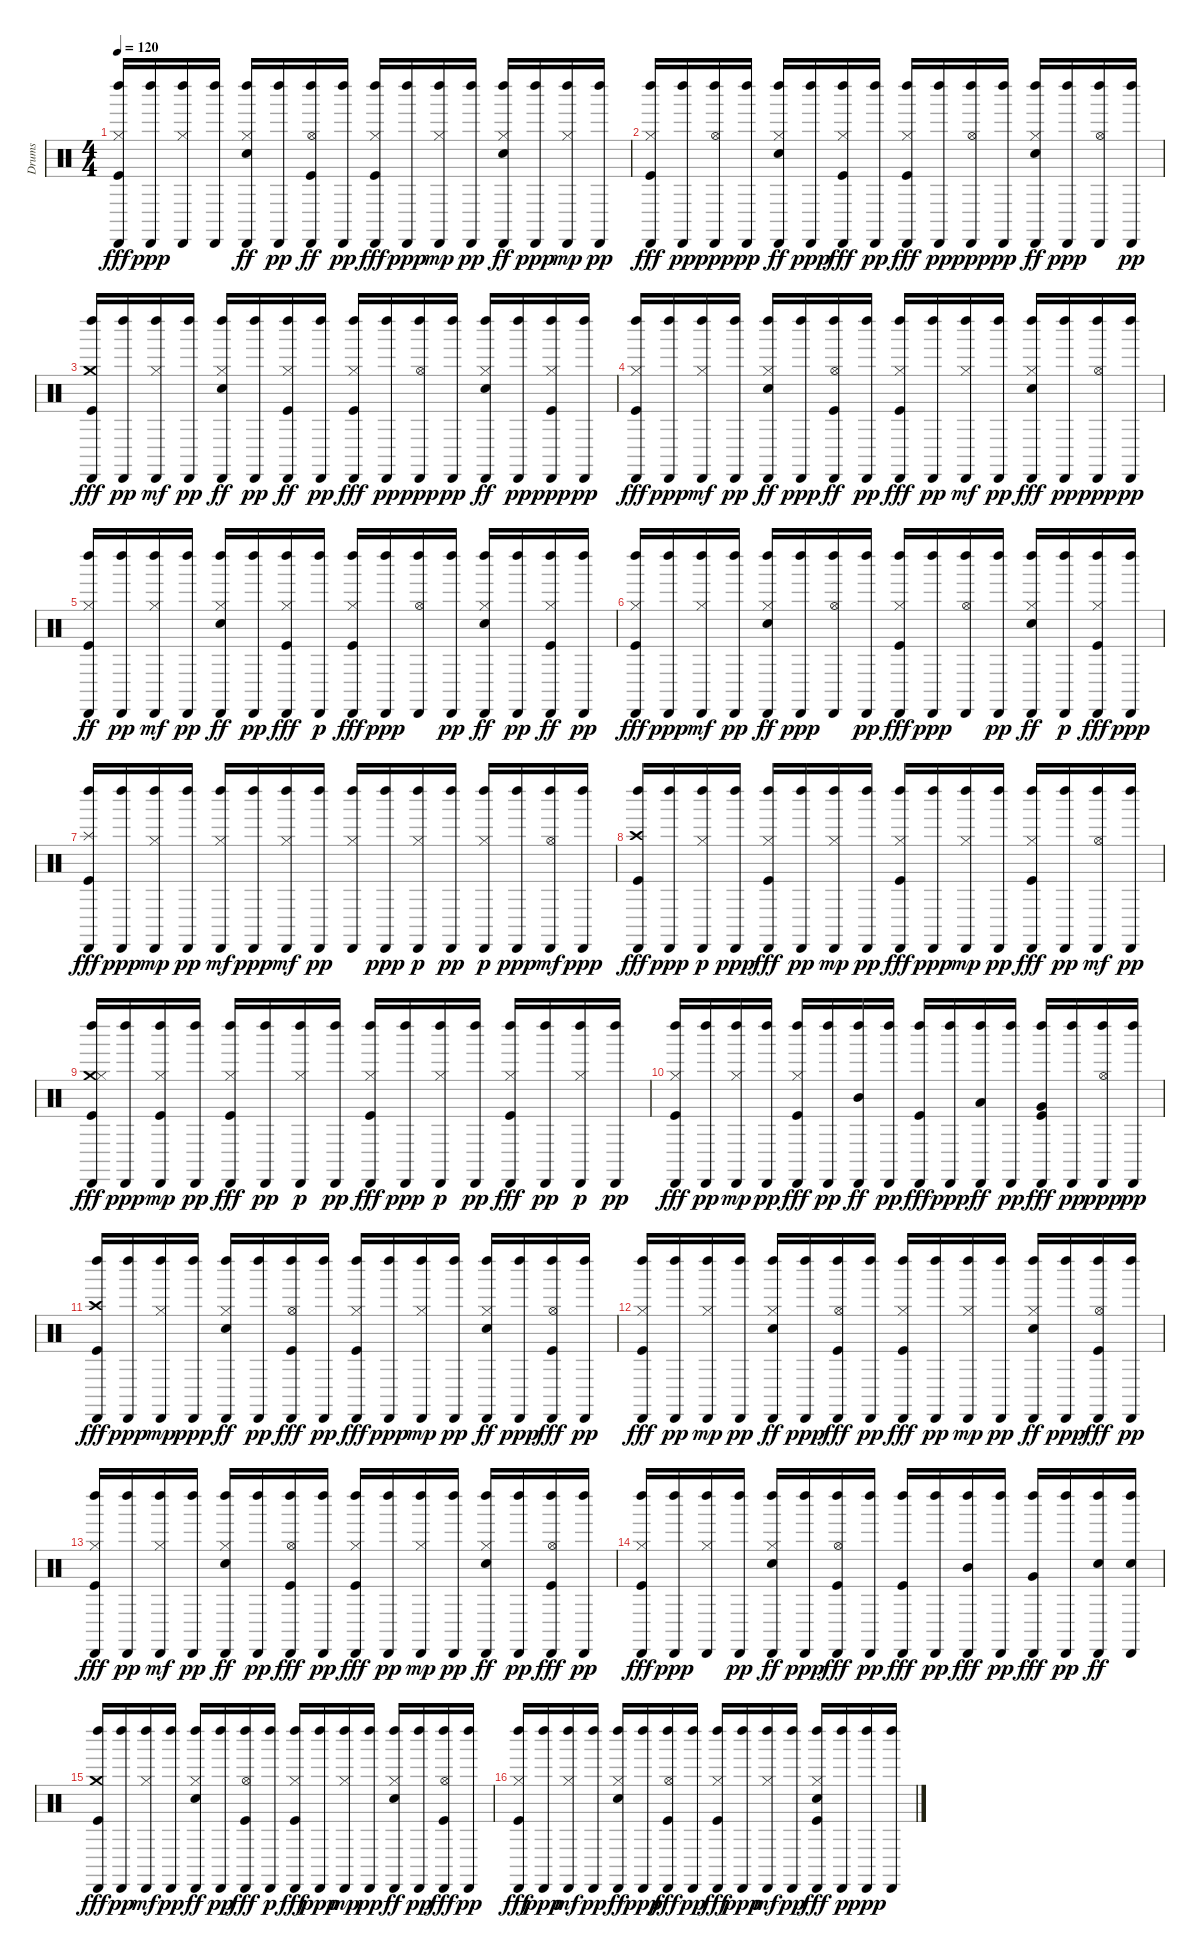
\track ("Drums" "Drums") {instrument percussion}
\staff {score}
\articulation defaults
\ts (4 4)
\tempo 120
\clef neutral
\ks c
("Left Maraca (hit)" "Cabasa (hit)" "Hi-Hat (closed)" "Kick (hit)").16{dy fff} ("Left Maraca (hit)" "Cabasa (hit)").16{dy ppp} ("Left Maraca (hit)" "Cabasa (hit)" "Hi-Hat (closed)").16 ("Left Maraca (hit)" "Cabasa (hit)").16 ("Left Maraca (hit)" "Cabasa (hit)" "Hi-Hat (closed)" "Electric Snare (hit)").16{dy ff} ("Left Maraca (hit)" "Cabasa (hit)").16{dy pp} ("Left Maraca (hit)" "Cabasa (hit)" "Hi-Hat (open)" "Kick (hit)").16{dy ff} ("Left Maraca (hit)" "Cabasa (hit)").16{dy pp} ("Left Maraca (hit)" "Cabasa (hit)" "Hi-Hat (closed)" "Kick (hit)").16{dy fff} ("Left Maraca (hit)" "Cabasa (hit)").16{dy ppp} ("Left Maraca (hit)" "Cabasa (hit)" "Hi-Hat (closed)").16{dy mp} ("Left Maraca (hit)" "Cabasa (hit)").16{dy pp} ("Left Maraca (hit)" "Cabasa (hit)" "Hi-Hat (closed)" "Electric Snare (hit)").16{dy ff} ("Left Maraca (hit)" "Cabasa (hit)").16{dy ppp} ("Left Maraca (hit)" "Cabasa (hit)" "Hi-Hat (closed)").16{dy mp} ("Left Maraca (hit)" "Cabasa (hit)").16{dy pp} |
("Left Maraca (hit)" "Cabasa (hit)" "Hi-Hat (closed)" "Kick (hit)").16{dy fff} ("Left Maraca (hit)" "Cabasa (hit)").16{dy pp} ("Left Maraca (hit)" "Cabasa (hit)" "Hi-Hat (open)").16{dy ppp} ("Left Maraca (hit)" "Cabasa (hit)").16{dy pp} ("Left Maraca (hit)" "Cabasa (hit)" "Hi-Hat (closed)" "Electric Snare (hit)").16{dy ff} ("Left Maraca (hit)" "Cabasa (hit)").16{dy ppp} ("Left Maraca (hit)" "Cabasa (hit)" "Hi-Hat (closed)" "Kick (hit)").16{dy fff} ("Left Maraca (hit)" "Cabasa (hit)").16{dy pp} ("Left Maraca (hit)" "Cabasa (hit)" "Hi-Hat (closed)" "Kick (hit)").16{dy fff} ("Left Maraca (hit)" "Cabasa (hit)").16{dy pp} ("Left Maraca (hit)" "Cabasa (hit)" "Hi-Hat (open)").16{dy ppp} ("Left Maraca (hit)" "Cabasa (hit)").16{dy pp} ("Left Maraca (hit)" "Cabasa (hit)" "Hi-Hat (closed)" "Electric Snare (hit)").16{dy ff} ("Left Maraca (hit)" "Cabasa (hit)").16{dy ppp} ("Left Maraca (hit)" "Cabasa (hit)" "Hi-Hat (open)").16 ("Left Maraca (hit)" "Cabasa (hit)").16{dy pp} |
("Left Maraca (hit)" "Cabasa (hit)" "Crash medium (hit)" "Kick (hit)").16{dy fff} ("Left Maraca (hit)" "Cabasa (hit)").16{dy pp} ("Left Maraca (hit)" "Cabasa (hit)" "Hi-Hat (closed)").16{dy mf} ("Left Maraca (hit)" "Cabasa (hit)").16{dy pp} ("Left Maraca (hit)" "Cabasa (hit)" "Hi-Hat (closed)" "Electric Snare (hit)").16{dy ff} ("Left Maraca (hit)" "Cabasa (hit)").16{dy pp} ("Left Maraca (hit)" "Cabasa (hit)" "Hi-Hat (closed)" "Kick (hit)").16{dy ff} ("Left Maraca (hit)" "Cabasa (hit)").16{dy pp} ("Left Maraca (hit)" "Cabasa (hit)" "Hi-Hat (closed)" "Kick (hit)").16{dy fff} ("Left Maraca (hit)" "Cabasa (hit)").16{dy pp} ("Left Maraca (hit)" "Cabasa (hit)" "Hi-Hat (open)").16{dy ppp} ("Left Maraca (hit)" "Cabasa (hit)").16{dy pp} ("Left Maraca (hit)" "Cabasa (hit)" "Hi-Hat (closed)" "Electric Snare (hit)").16{dy ff} ("Left Maraca (hit)" "Cabasa (hit)").16{dy pp} ("Left Maraca (hit)" "Cabasa (hit)" "Hi-Hat (closed)" "Kick (hit)").16{dy ppp} ("Left Maraca (hit)" "Cabasa (hit)").16{dy pp} |
("Left Maraca (hit)" "Cabasa (hit)" "Hi-Hat (closed)" "Kick (hit)").16{dy fff} ("Left Maraca (hit)" "Cabasa (hit)").16{dy ppp} ("Left Maraca (hit)" "Cabasa (hit)" "Hi-Hat (closed)").16{dy mf} ("Left Maraca (hit)" "Cabasa (hit)").16{dy pp} ("Left Maraca (hit)" "Cabasa (hit)" "Hi-Hat (closed)" "Electric Snare (hit)").16{dy ff} ("Left Maraca (hit)" "Cabasa (hit)").16{dy ppp} ("Left Maraca (hit)" "Cabasa (hit)" "Hi-Hat (open)" "Kick (hit)").16{dy ff} ("Left Maraca (hit)" "Cabasa (hit)").16{dy pp} ("Left Maraca (hit)" "Cabasa (hit)" "Hi-Hat (closed)" "Kick (hit)").16{dy fff} ("Left Maraca (hit)" "Cabasa (hit)").16{dy pp} ("Left Maraca (hit)" "Cabasa (hit)" "Hi-Hat (closed)").16{dy mf} ("Left Maraca (hit)" "Cabasa (hit)").16{dy pp} ("Left Maraca (hit)" "Cabasa (hit)" "Electric Snare (hit)" "Hi-Hat (closed)").16{dy fff} ("Left Maraca (hit)" "Cabasa (hit)").16{dy pp} ("Left Maraca (hit)" "Cabasa (hit)" "Hi-Hat (open)").16{dy ppp} ("Left Maraca (hit)" "Cabasa (hit)").16{dy pp} |
("Left Maraca (hit)" "Cabasa (hit)" "Hi-Hat (closed)" "Kick (hit)").16{dy ff} ("Left Maraca (hit)" "Cabasa (hit)").16{dy pp} ("Left Maraca (hit)" "Cabasa (hit)" "Hi-Hat (closed)").16{dy mf} ("Left Maraca (hit)" "Cabasa (hit)").16{dy pp} ("Left Maraca (hit)" "Cabasa (hit)" "Hi-Hat (closed)" "Electric Snare (hit)").16{dy ff} ("Left Maraca (hit)" "Cabasa (hit)").16{dy pp} ("Left Maraca (hit)" "Cabasa (hit)" "Hi-Hat (closed)" "Kick (hit)").16{dy fff} ("Left Maraca (hit)" "Cabasa (hit)").16{dy p} ("Left Maraca (hit)" "Cabasa (hit)" "Hi-Hat (closed)" "Kick (hit)").16{dy fff} ("Left Maraca (hit)" "Cabasa (hit)").16{dy ppp} ("Left Maraca (hit)" "Cabasa (hit)" "Hi-Hat (open)").16 ("Left Maraca (hit)" "Cabasa (hit)").16{dy pp} ("Left Maraca (hit)" "Cabasa (hit)" "Hi-Hat (closed)" "Electric Snare (hit)").16{dy ff} ("Left Maraca (hit)" "Cabasa (hit)").16{dy pp} ("Left Maraca (hit)" "Cabasa (hit)" "Hi-Hat (closed)" "Kick (hit)").16{dy ff} ("Left Maraca (hit)" "Cabasa (hit)").16{dy pp} |
("Left Maraca (hit)" "Cabasa (hit)" "Hi-Hat (closed)" "Kick (hit)").16{dy fff} ("Left Maraca (hit)" "Cabasa (hit)").16{dy ppp} ("Left Maraca (hit)" "Cabasa (hit)" "Hi-Hat (closed)").16{dy mf} ("Left Maraca (hit)" "Cabasa (hit)").16{dy pp} ("Left Maraca (hit)" "Cabasa (hit)" "Hi-Hat (closed)" "Electric Snare (hit)").16{dy ff} ("Left Maraca (hit)" "Cabasa (hit)").16{dy ppp} ("Left Maraca (hit)" "Cabasa (hit)" "Hi-Hat (open)").16 ("Left Maraca (hit)" "Cabasa (hit)").16{dy pp} ("Left Maraca (hit)" "Cabasa (hit)" "Hi-Hat (closed)" "Kick (hit)").16{dy fff} ("Left Maraca (hit)" "Cabasa (hit)").16{dy ppp} ("Left Maraca (hit)" "Cabasa (hit)" "Hi-Hat (open)").16 ("Left Maraca (hit)" "Cabasa (hit)").16{dy pp} ("Left Maraca (hit)" "Cabasa (hit)" "Electric Snare (hit)" "Hi-Hat (closed)").16{dy ff} ("Left Maraca (hit)" "Cabasa (hit)").16{dy p} ("Left Maraca (hit)" "Cabasa (hit)" "Hi-Hat (closed)" "Kick (hit)").16{dy fff} ("Left Maraca (hit)" "Cabasa (hit)").16{dy ppp} |
("Left Maraca (hit)" "Cabasa (hit)" "Splash (hit)" "Kick (hit)").16{dy fff} ("Left Maraca (hit)" "Cabasa (hit)").16{dy ppp} ("Left Maraca (hit)" "Cabasa (hit)" "Hi-Hat (closed)").16{dy mp} ("Left Maraca (hit)" "Cabasa (hit)").16{dy pp} ("Left Maraca (hit)" "Cabasa (hit)" "Hi-Hat (closed)").16{dy mf} ("Left Maraca (hit)" "Cabasa (hit)").16{dy ppp} ("Left Maraca (hit)" "Cabasa (hit)" "Hi-Hat (closed)").16{dy mf} ("Left Maraca (hit)" "Cabasa (hit)").16{dy pp} ("Left Maraca (hit)" "Cabasa (hit)" "Hi-Hat (closed)").16 ("Left Maraca (hit)" "Cabasa (hit)").16{dy ppp} ("Left Maraca (hit)" "Cabasa (hit)" "Hi-Hat (closed)").16{dy p} ("Left Maraca (hit)" "Cabasa (hit)").16{dy pp} ("Left Maraca (hit)" "Cabasa (hit)" "Hi-Hat (closed)").16{dy p} ("Left Maraca (hit)" "Cabasa (hit)").16{dy ppp} ("Left Maraca (hit)" "Cabasa (hit)" "Hi-Hat (open)").16{dy mf} ("Left Maraca (hit)" "Cabasa (hit)").16{dy ppp} |
("Left Maraca (hit)" "Cabasa (hit)" "Crash high (hit)" "Kick (hit)").16{dy fff} ("Left Maraca (hit)" "Cabasa (hit)").16{dy ppp} ("Left Maraca (hit)" "Cabasa (hit)" "Hi-Hat (closed)").16{dy p} ("Left Maraca (hit)" "Cabasa (hit)").16{dy ppp} ("Left Maraca (hit)" "Cabasa (hit)" "Hi-Hat (closed)" "Kick (hit)").16{dy fff} ("Left Maraca (hit)" "Cabasa (hit)").16{dy pp} ("Left Maraca (hit)" "Cabasa (hit)" "Hi-Hat (closed)").16{dy mp} ("Left Maraca (hit)" "Cabasa (hit)").16{dy pp} ("Left Maraca (hit)" "Cabasa (hit)" "Hi-Hat (closed)" "Kick (hit)").16{dy fff} ("Left Maraca (hit)" "Cabasa (hit)").16{dy ppp} ("Left Maraca (hit)" "Cabasa (hit)" "Hi-Hat (closed)").16{dy mp} ("Left Maraca (hit)" "Cabasa (hit)").16{dy pp} ("Left Maraca (hit)" "Cabasa (hit)" "Hi-Hat (closed)" "Kick (hit)").16{dy fff} ("Left Maraca (hit)" "Cabasa (hit)").16{dy pp} ("Left Maraca (hit)" "Cabasa (hit)" "Hi-Hat (open)").16{dy mf} ("Left Maraca (hit)" "Cabasa (hit)").16{dy pp} |
("Left Maraca (hit)" "Cabasa (hit)" "Crash medium (hit)" "Hi-Hat (closed)" "Kick (hit)").16{dy fff} ("Left Maraca (hit)" "Cabasa (hit)").16{dy ppp} ("Left Maraca (hit)" "Cabasa (hit)" "Hi-Hat (closed)" "Kick (hit)").16{dy mp} ("Left Maraca (hit)" "Cabasa (hit)").16{dy pp} ("Left Maraca (hit)" "Cabasa (hit)" "Hi-Hat (closed)" "Kick (hit)").16{dy fff} ("Left Maraca (hit)" "Cabasa (hit)").16{dy pp} ("Left Maraca (hit)" "Cabasa (hit)" "Hi-Hat (closed)").16{dy p} ("Left Maraca (hit)" "Cabasa (hit)").16{dy pp} ("Left Maraca (hit)" "Cabasa (hit)" "Hi-Hat (closed)" "Kick (hit)").16{dy fff} ("Left Maraca (hit)" "Cabasa (hit)").16{dy ppp} ("Left Maraca (hit)" "Cabasa (hit)" "Hi-Hat (closed)").16{dy p} ("Left Maraca (hit)" "Cabasa (hit)").16{dy pp} ("Left Maraca (hit)" "Cabasa (hit)" "Hi-Hat (closed)" "Kick (hit)").16{dy fff} ("Left Maraca (hit)" "Cabasa (hit)").16{dy pp} ("Left Maraca (hit)" "Cabasa (hit)" "Hi-Hat (closed)").16{dy p} ("Left Maraca (hit)" "Cabasa (hit)").16{dy pp} |
("Left Maraca (hit)" "Cabasa (hit)" "Hi-Hat (closed)" "Kick (hit)").16{dy fff} ("Left Maraca (hit)" "Cabasa (hit)").16{dy pp} ("Left Maraca (hit)" "Cabasa (hit)" "Hi-Hat (closed)").16{dy mp} ("Left Maraca (hit)" "Cabasa (hit)").16{dy pp} ("Left Maraca (hit)" "Cabasa (hit)" "Hi-Hat (closed)" "Kick (hit)").16{dy fff} ("Left Maraca (hit)" "Cabasa (hit)").16{dy pp} ("Left Maraca (hit)" "Cabasa (hit)" "Mid Tom (hit)").16{dy ff} ("Left Maraca (hit)" "Cabasa (hit)").16{dy pp} ("Left Maraca (hit)" "Cabasa (hit)" "Kick (hit)").16{dy fff} ("Left Maraca (hit)" "Cabasa (hit)").16{dy ppp} ("Left Maraca (hit)" "Cabasa (hit)" "Low Tom (hit)").16{dy ff} ("Left Maraca (hit)" "Cabasa (hit)").16{dy pp} ("Left Maraca (hit)" "Cabasa (hit)" "Very Low Tom (hit)" "Kick (hit)").16{dy fff} ("Left Maraca (hit)" "Cabasa (hit)").16{dy pp} ("Left Maraca (hit)" "Cabasa (hit)" "Hi-Hat (open)").16{dy ppp} ("Left Maraca (hit)" "Cabasa (hit)").16{dy pp} |
("Left Maraca (hit)" "Cabasa (hit)" "Crash high (hit)" "Kick (hit)").16{dy fff} ("Left Maraca (hit)" "Cabasa (hit)").16{dy ppp} ("Left Maraca (hit)" "Cabasa (hit)" "Hi-Hat (closed)").16{dy mp} ("Left Maraca (hit)" "Cabasa (hit)").16{dy ppp} ("Left Maraca (hit)" "Cabasa (hit)" "Hi-Hat (closed)" "Electric Snare (hit)").16{dy ff} ("Left Maraca (hit)" "Cabasa (hit)").16{dy pp} ("Left Maraca (hit)" "Cabasa (hit)" "Hi-Hat (open)" "Kick (hit)").16{dy fff} ("Left Maraca (hit)" "Cabasa (hit)").16{dy pp} ("Left Maraca (hit)" "Cabasa (hit)" "Hi-Hat (closed)" "Kick (hit)").16{dy fff} ("Left Maraca (hit)" "Cabasa (hit)").16{dy ppp} ("Left Maraca (hit)" "Cabasa (hit)" "Hi-Hat (closed)").16{dy mp} ("Left Maraca (hit)" "Cabasa (hit)").16{dy pp} ("Left Maraca (hit)" "Cabasa (hit)" "Hi-Hat (closed)" "Electric Snare (hit)").16{dy ff} ("Left Maraca (hit)" "Cabasa (hit)").16{dy ppp} ("Left Maraca (hit)" "Cabasa (hit)" "Hi-Hat (open)" "Kick (hit)").16{dy fff} ("Left Maraca (hit)" "Cabasa (hit)").16{dy pp} |
("Left Maraca (hit)" "Cabasa (hit)" "Hi-Hat (closed)" "Kick (hit)").16{dy fff} ("Left Maraca (hit)" "Cabasa (hit)").16{dy pp} ("Left Maraca (hit)" "Cabasa (hit)" "Hi-Hat (closed)").16{dy mp} ("Left Maraca (hit)" "Cabasa (hit)").16{dy pp} ("Left Maraca (hit)" "Cabasa (hit)" "Hi-Hat (closed)" "Electric Snare (hit)").16{dy ff} ("Left Maraca (hit)" "Cabasa (hit)").16{dy ppp} ("Left Maraca (hit)" "Cabasa (hit)" "Hi-Hat (open)" "Kick (hit)").16{dy fff} ("Left Maraca (hit)" "Cabasa (hit)").16{dy pp} ("Left Maraca (hit)" "Cabasa (hit)" "Hi-Hat (closed)" "Kick (hit)").16{dy fff} ("Left Maraca (hit)" "Cabasa (hit)").16{dy pp} ("Left Maraca (hit)" "Cabasa (hit)" "Hi-Hat (closed)").16{dy mp} ("Left Maraca (hit)" "Cabasa (hit)").16{dy pp} ("Left Maraca (hit)" "Cabasa (hit)" "Hi-Hat (closed)" "Electric Snare (hit)").16{dy ff} ("Left Maraca (hit)" "Cabasa (hit)").16{dy ppp} ("Left Maraca (hit)" "Cabasa (hit)" "Hi-Hat (open)" "Kick (hit)").16{dy fff} ("Left Maraca (hit)" "Cabasa (hit)").16{dy pp} |
("Left Maraca (hit)" "Cabasa (hit)" "Hi-Hat (closed)" "Kick (hit)").16{dy fff} ("Left Maraca (hit)" "Cabasa (hit)").16{dy pp} ("Left Maraca (hit)" "Cabasa (hit)" "Hi-Hat (closed)").16{dy mf} ("Left Maraca (hit)" "Cabasa (hit)").16{dy pp} ("Left Maraca (hit)" "Cabasa (hit)" "Hi-Hat (closed)" "Electric Snare (hit)").16{dy ff} ("Left Maraca (hit)" "Cabasa (hit)").16{dy pp} ("Left Maraca (hit)" "Cabasa (hit)" "Hi-Hat (open)" "Kick (hit)").16{dy fff} ("Left Maraca (hit)" "Cabasa (hit)").16{dy pp} ("Left Maraca (hit)" "Cabasa (hit)" "Hi-Hat (closed)" "Kick (hit)").16{dy fff} ("Left Maraca (hit)" "Cabasa (hit)").16{dy pp} ("Left Maraca (hit)" "Cabasa (hit)" "Hi-Hat (closed)").16{dy mp} ("Left Maraca (hit)" "Cabasa (hit)").16{dy pp} ("Left Maraca (hit)" "Cabasa (hit)" "Hi-Hat (closed)" "Electric Snare (hit)").16{dy ff} ("Left Maraca (hit)" "Cabasa (hit)").16{dy pp} ("Left Maraca (hit)" "Cabasa (hit)" "Hi-Hat (open)" "Kick (hit)").16{dy fff} ("Left Maraca (hit)" "Cabasa (hit)").16{dy pp} |
("Left Maraca (hit)" "Cabasa (hit)" "Hi-Hat (closed)" "Kick (hit)").16{dy fff} ("Left Maraca (hit)" "Cabasa (hit)").16{dy ppp} ("Left Maraca (hit)" "Cabasa (hit)" "Hi-Hat (closed)").16 ("Left Maraca (hit)" "Cabasa (hit)").16{dy pp} ("Left Maraca (hit)" "Cabasa (hit)" "Hi-Hat (closed)" "Electric Snare (hit)").16{dy ff} ("Left Maraca (hit)" "Cabasa (hit)").16{dy ppp} ("Left Maraca (hit)" "Cabasa (hit)" "Hi-Hat (open)" "Kick (hit)").16{dy fff} ("Left Maraca (hit)" "Cabasa (hit)").16{dy pp} ("Left Maraca (hit)" "Cabasa (hit)" "Kick (hit)").16{dy fff} ("Left Maraca (hit)" "Cabasa (hit)").16{dy pp} ("Left Maraca (hit)" "Cabasa (hit)" "Mid Tom (hit)").16{dy fff} ("Left Maraca (hit)" "Cabasa (hit)").16{dy pp} ("Left Maraca (hit)" "Cabasa (hit)" "Very Low Tom (hit)").16{dy fff} ("Left Maraca (hit)" "Cabasa (hit)").16{dy pp} ("Left Maraca (hit)" "Cabasa (hit)" "Electric Snare (hit)").16{dy ff} ("Left Maraca (hit)" "Cabasa (hit)" "Electric Snare (hit)").16 |
("Left Maraca (hit)" "Cabasa (hit)" "Crash medium (hit)" "Kick (hit)").16{dy fff} ("Left Maraca (hit)" "Cabasa (hit)").16{dy pp} ("Left Maraca (hit)" "Cabasa (hit)" "Hi-Hat (closed)").16{dy mf} ("Left Maraca (hit)" "Cabasa (hit)").16{dy pp} ("Left Maraca (hit)" "Cabasa (hit)" "Hi-Hat (closed)" "Electric Snare (hit)").16{dy ff} ("Left Maraca (hit)" "Cabasa (hit)").16{dy pp} ("Left Maraca (hit)" "Cabasa (hit)" "Hi-Hat (open)" "Kick (hit)").16{dy fff} ("Left Maraca (hit)" "Cabasa (hit)").16{dy p} ("Left Maraca (hit)" "Cabasa (hit)" "Hi-Hat (closed)" "Kick (hit)").16{dy fff} ("Left Maraca (hit)" "Cabasa (hit)").16{dy ppp} ("Left Maraca (hit)" "Cabasa (hit)" "Hi-Hat (closed)").16{dy mp} ("Left Maraca (hit)" "Cabasa (hit)").16{dy pp} ("Left Maraca (hit)" "Cabasa (hit)" "Hi-Hat (closed)" "Electric Snare (hit)").16{dy ff} ("Left Maraca (hit)" "Cabasa (hit)").16{dy pp} ("Left Maraca (hit)" "Cabasa (hit)" "Hi-Hat (open)" "Kick (hit)").16{dy fff} ("Left Maraca (hit)" "Cabasa (hit)").16{dy pp} |
("Left Maraca (hit)" "Cabasa (hit)" "Hi-Hat (closed)" "Kick (hit)").16{dy fff} ("Left Maraca (hit)" "Cabasa (hit)").16{dy ppp} ("Left Maraca (hit)" "Cabasa (hit)" "Hi-Hat (closed)").16{dy mf} ("Left Maraca (hit)" "Cabasa (hit)").16{dy pp} ("Left Maraca (hit)" "Cabasa (hit)" "Hi-Hat (closed)" "Electric Snare (hit)").16{dy ff} ("Left Maraca (hit)" "Cabasa (hit)").16{dy ppp} ("Left Maraca (hit)" "Cabasa (hit)" "Hi-Hat (open)" "Kick (hit)").16{dy fff} ("Left Maraca (hit)" "Cabasa (hit)").16{dy pp} ("Left Maraca (hit)" "Cabasa (hit)" "Hi-Hat (closed)" "Kick (hit)").16{dy fff} ("Left Maraca (hit)" "Cabasa (hit)").16{dy ppp} ("Left Maraca (hit)" "Cabasa (hit)" "Hi-Hat (closed)").16{dy mf} ("Left Maraca (hit)" "Cabasa (hit)").16{dy pp} ("Left Maraca (hit)" "Cabasa (hit)" "Hi-Hat (closed)" "Electric Snare (hit)" "Kick (hit)").16{dy fff} ("Left Maraca (hit)" "Cabasa (hit)").16{dy p} ("Left Maraca (hit)" "Cabasa (hit)").16{dy ppp} ("Left Maraca (hit)" "Cabasa (hit)").16
